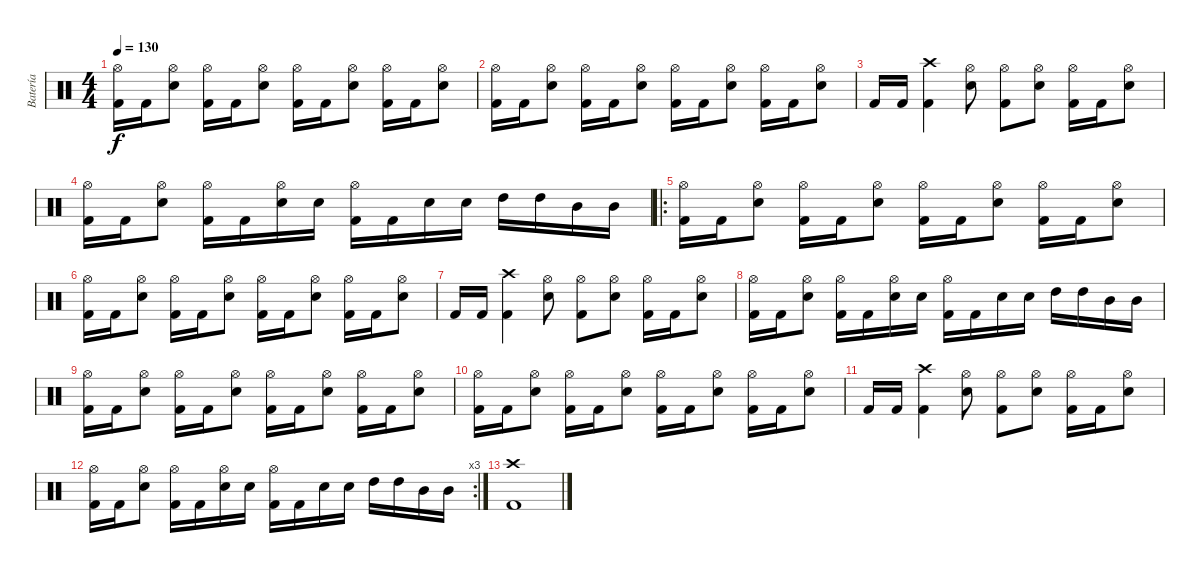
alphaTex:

\track ("Batería" "Batería") {instrument percussion}
\staff {score}
\articulation defaults
\ts (4 4)
\tempo 130
\clef neutral
\ks c
("Hi-Hat (open)" "Kick (hit) 2").16{dy f} "Kick (hit) 2".16 ("Hi-Hat (open)" "Snare (hit) 2").8 ("Hi-Hat (open)" "Kick (hit) 2").16 "Kick (hit) 2".16 ("Hi-Hat (open)" "Snare (hit) 2").8 ("Hi-Hat (open)" "Kick (hit) 2").16 "Kick (hit) 2".16 ("Hi-Hat (open)" "Snare (hit) 2").8 ("Hi-Hat (open)" "Kick (hit) 2").16 "Kick (hit) 2".16 ("Hi-Hat (open)" "Snare (hit) 2").8 |
("Hi-Hat (open)" "Kick (hit) 2").16 "Kick (hit) 2".16 ("Hi-Hat (open)" "Snare (hit) 2").8 ("Hi-Hat (open)" "Kick (hit) 2").16 "Kick (hit) 2".16 ("Hi-Hat (open)" "Snare (hit) 2").8 ("Hi-Hat (open)" "Kick (hit) 2").16 "Kick (hit) 2".16 ("Hi-Hat (open)" "Snare (hit) 2").8 ("Hi-Hat (open)" "Kick (hit) 2").16 "Kick (hit) 2".16 ("Hi-Hat (open)" "Snare (hit) 2").8 |
"Kick (hit) 2".16 "Kick (hit) 2".16 ("Crash high (hit)" "Kick (hit) 2").4 ("Hi-Hat (open)" "Snare (hit) 2").8 ("Hi-Hat (open)" "Kick (hit) 2").8 ("Hi-Hat (open)" "Snare (hit) 2").8 ("Hi-Hat (open)" "Kick (hit) 2").16 "Kick (hit) 2".16 ("Hi-Hat (open)" "Snare (hit) 2").8 |
("Hi-Hat (open)" "Kick (hit) 2").16 "Kick (hit) 2".16 ("Hi-Hat (open)" "Snare (hit) 2").8 ("Hi-Hat (open)" "Kick (hit) 2").16 "Kick (hit) 2".16 ("Hi-Hat (open)" "Snare (hit) 2").16 "Snare (hit) 2".16 ("Hi-Hat (open)" "Kick (hit) 2").16 "Kick (hit) 2".16 "Snare (hit) 2".16 "Snare (hit) 2".16 "High Tom (hit)".16 "High Tom (hit)".16 "Mid Tom (hit)".16 "Mid Tom (hit)".16 |
\ro
("Hi-Hat (open)" "Kick (hit) 2").16 "Kick (hit) 2".16 ("Hi-Hat (open)" "Snare (hit) 2").8 ("Hi-Hat (open)" "Kick (hit) 2").16 "Kick (hit) 2".16 ("Hi-Hat (open)" "Snare (hit) 2").8 ("Hi-Hat (open)" "Kick (hit) 2").16 "Kick (hit) 2".16 ("Hi-Hat (open)" "Snare (hit) 2").8 ("Hi-Hat (open)" "Kick (hit) 2").16 "Kick (hit) 2".16 ("Hi-Hat (open)" "Snare (hit) 2").8 |
("Hi-Hat (open)" "Kick (hit) 2").16 "Kick (hit) 2".16 ("Hi-Hat (open)" "Snare (hit) 2").8 ("Hi-Hat (open)" "Kick (hit) 2").16 "Kick (hit) 2".16 ("Hi-Hat (open)" "Snare (hit) 2").8 ("Hi-Hat (open)" "Kick (hit) 2").16 "Kick (hit) 2".16 ("Hi-Hat (open)" "Snare (hit) 2").8 ("Hi-Hat (open)" "Kick (hit) 2").16 "Kick (hit) 2".16 ("Hi-Hat (open)" "Snare (hit) 2").8 |
"Kick (hit) 2".16 "Kick (hit) 2".16 ("Crash high (hit)" "Kick (hit) 2").4 ("Hi-Hat (open)" "Snare (hit) 2").8 ("Hi-Hat (open)" "Kick (hit) 2").8 ("Hi-Hat (open)" "Snare (hit) 2").8 ("Hi-Hat (open)" "Kick (hit) 2").16 "Kick (hit) 2".16 ("Hi-Hat (open)" "Snare (hit) 2").8 |
("Hi-Hat (open)" "Kick (hit) 2").16 "Kick (hit) 2".16 ("Hi-Hat (open)" "Snare (hit) 2").8 ("Hi-Hat (open)" "Kick (hit) 2").16 "Kick (hit) 2".16 ("Hi-Hat (open)" "Snare (hit) 2").16 "Snare (hit) 2".16 ("Hi-Hat (open)" "Kick (hit) 2").16 "Kick (hit) 2".16 "Snare (hit) 2".16 "Snare (hit) 2".16 "High Tom (hit)".16 "High Tom (hit)".16 "Mid Tom (hit)".16 "Mid Tom (hit)".16 |
("Hi-Hat (open)" "Kick (hit) 2").16 "Kick (hit) 2".16 ("Hi-Hat (open)" "Snare (hit) 2").8 ("Hi-Hat (open)" "Kick (hit) 2").16 "Kick (hit) 2".16 ("Hi-Hat (open)" "Snare (hit) 2").8 ("Hi-Hat (open)" "Kick (hit) 2").16 "Kick (hit) 2".16 ("Hi-Hat (open)" "Snare (hit) 2").8 ("Hi-Hat (open)" "Kick (hit) 2").16 "Kick (hit) 2".16 ("Hi-Hat (open)" "Snare (hit) 2").8 |
("Hi-Hat (open)" "Kick (hit) 2").16 "Kick (hit) 2".16 ("Hi-Hat (open)" "Snare (hit) 2").8 ("Hi-Hat (open)" "Kick (hit) 2").16 "Kick (hit) 2".16 ("Hi-Hat (open)" "Snare (hit) 2").8 ("Hi-Hat (open)" "Kick (hit) 2").16 "Kick (hit) 2".16 ("Hi-Hat (open)" "Snare (hit) 2").8 ("Hi-Hat (open)" "Kick (hit) 2").16 "Kick (hit) 2".16 ("Hi-Hat (open)" "Snare (hit) 2").8 |
"Kick (hit) 2".16 "Kick (hit) 2".16 ("Crash high (hit)" "Kick (hit) 2").4 ("Hi-Hat (open)" "Snare (hit) 2").8 ("Hi-Hat (open)" "Kick (hit) 2").8 ("Hi-Hat (open)" "Snare (hit) 2").8 ("Hi-Hat (open)" "Kick (hit) 2").16 "Kick (hit) 2".16 ("Hi-Hat (open)" "Snare (hit) 2").8 |
\rc 3
("Hi-Hat (open)" "Kick (hit) 2").16 "Kick (hit) 2".16 ("Hi-Hat (open)" "Snare (hit) 2").8 ("Hi-Hat (open)" "Kick (hit) 2").16 "Kick (hit) 2".16 ("Hi-Hat (open)" "Snare (hit) 2").16 "Snare (hit) 2".16 ("Hi-Hat (open)" "Kick (hit) 2").16 "Kick (hit) 2".16 "Snare (hit) 2".16 "Snare (hit) 2".16 "High Tom (hit)".16 "High Tom (hit)".16 "Mid Tom (hit)".16 "Mid Tom (hit)".16 |
("Crash high (hit)" "Kick (hit) 2").1
